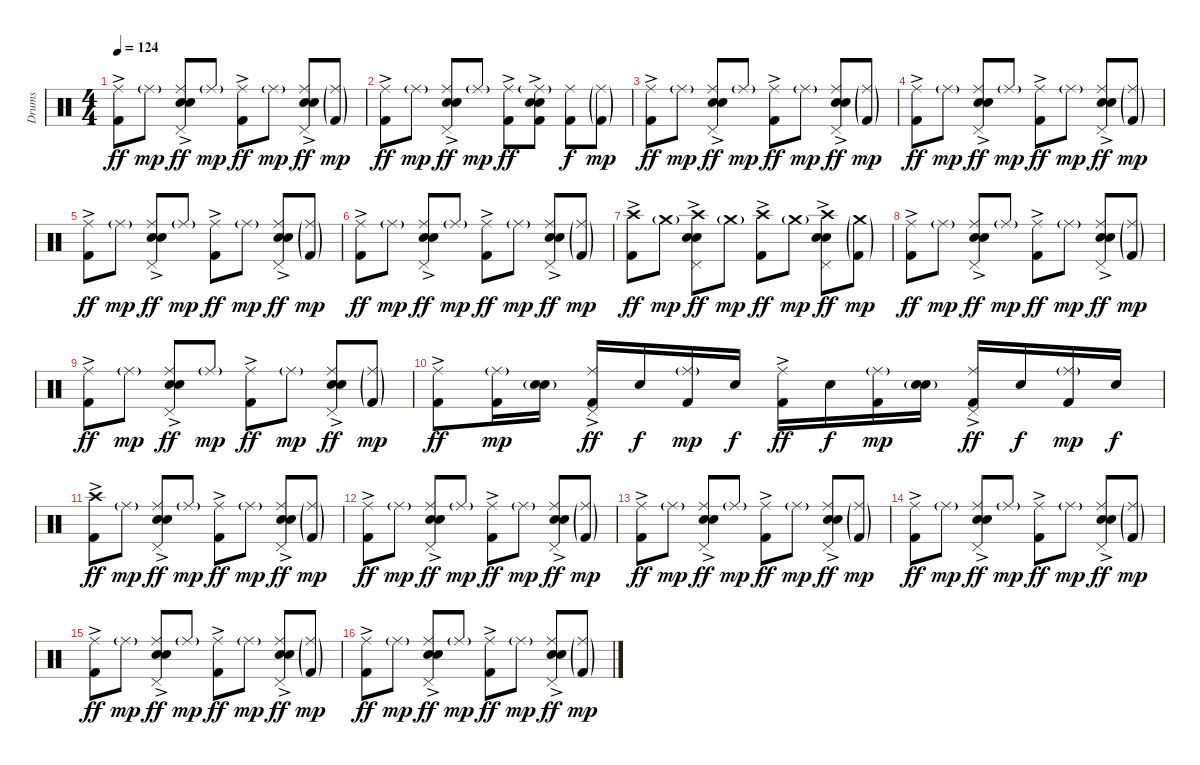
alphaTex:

\track ("Drums" "Drums") {instrument percussion}
\staff {score}
\articulation defaults
\ts (4 4)
\tempo 124
\clef neutral
\ks c
("Ride (middle)" "Kick (hit) 2"{ac}).8{dy ff} "Ride (middle)"{g}.8{dy mp} ("Ride (middle)" "Electric Snare (hit)"{ac} "Snare (hit) 2" "Pedal Hi-Hat (hit)").8{dy ff} "Ride (middle)"{g}.8{dy mp} ("Ride (middle)" "Kick (hit) 2"{ac}).8{dy ff} "Ride (middle)"{g}.8{dy mp} ("Ride (middle)" "Electric Snare (hit)"{ac} "Snare (hit) 2" "Pedal Hi-Hat (hit)").8{dy ff} ("Ride (middle)"{g} "Kick (hit) 2"{g}).8{dy mp} |
("Ride (middle)" "Kick (hit) 2"{ac}).8{dy ff} "Ride (middle)"{g}.8{dy mp} ("Ride (middle)" "Electric Snare (hit)"{ac} "Snare (hit) 2" "Pedal Hi-Hat (hit)").8{dy ff} "Ride (middle)"{g}.8{dy mp} ("Ride (middle)" "Kick (hit) 2"{ac}).8{dy ff} ("Ride (middle)"{g} "Electric Snare (hit)"{ac} "Snare (hit) 2" "Kick (hit) 2").8 ("Ride (middle)" "Kick (hit) 2").8{dy f} ("Ride (middle)"{g} "Kick (hit) 2"{g}).8{dy mp} |
("Ride (middle)" "Kick (hit) 2"{ac}).8{dy ff} "Ride (middle)"{g}.8{dy mp} ("Ride (middle)" "Electric Snare (hit)"{ac} "Snare (hit) 2" "Pedal Hi-Hat (hit)").8{dy ff} "Ride (middle)"{g}.8{dy mp} ("Ride (middle)" "Kick (hit) 2"{ac}).8{dy ff} "Ride (middle)"{g}.8{dy mp} ("Ride (middle)" "Electric Snare (hit)"{ac} "Snare (hit) 2" "Pedal Hi-Hat (hit)").8{dy ff} ("Ride (middle)"{g} "Kick (hit) 2"{g}).8{dy mp} |
("Ride (middle)" "Kick (hit) 2"{ac}).8{dy ff} "Ride (middle)"{g}.8{dy mp} ("Ride (middle)" "Electric Snare (hit)"{ac} "Snare (hit) 2" "Pedal Hi-Hat (hit)").8{dy ff} "Ride (middle)"{g}.8{dy mp} ("Ride (middle)" "Kick (hit) 2"{ac}).8{dy ff} "Ride (middle)"{g}.8{dy mp} ("Ride (middle)" "Electric Snare (hit)"{ac} "Snare (hit) 2" "Pedal Hi-Hat (hit)").8{dy ff} ("Ride (middle)"{g} "Kick (hit) 2"{g}).8{dy mp} |
("Ride (middle)" "Kick (hit) 2"{ac}).8{dy ff} "Ride (middle)"{g}.8{dy mp} ("Ride (middle)" "Electric Snare (hit)"{ac} "Snare (hit) 2" "Pedal Hi-Hat (hit)").8{dy ff} "Ride (middle)"{g}.8{dy mp} ("Ride (middle)" "Kick (hit) 2"{ac}).8{dy ff} "Ride (middle)"{g}.8{dy mp} ("Ride (middle)" "Electric Snare (hit)"{ac} "Snare (hit) 2" "Pedal Hi-Hat (hit)").8{dy ff} ("Ride (middle)"{g} "Kick (hit) 2"{g}).8{dy mp} |
("Ride (middle)" "Kick (hit) 2"{ac}).8{dy ff} "Ride (middle)"{g}.8{dy mp} ("Ride (middle)" "Electric Snare (hit)"{ac} "Snare (hit) 2" "Pedal Hi-Hat (hit)").8{dy ff} "Ride (middle)"{g}.8{dy mp} ("Ride (middle)" "Kick (hit) 2"{ac}).8{dy ff} "Ride (middle)"{g}.8{dy mp} ("Ride (middle)" "Electric Snare (hit)"{ac} "Snare (hit) 2" "Pedal Hi-Hat (hit)").8{dy ff} ("Ride (middle)"{g} "Kick (hit) 2"{g}).8{dy mp} |
("Crash high (hit)" "Kick (hit) 2"{ac}).8{dy ff} "Crash medium (hit)"{g}.8{dy mp} ("Crash high (hit)" "Electric Snare (hit)"{ac} "Snare (hit) 2" "Pedal Hi-Hat (hit)").8{dy ff} "Crash medium (hit)"{g}.8{dy mp} ("Crash high (hit)" "Kick (hit) 2"{ac}).8{dy ff} "Crash medium (hit)"{g}.8{dy mp} ("Crash high (hit)" "Electric Snare (hit)"{ac} "Snare (hit) 2" "Pedal Hi-Hat (hit)").8{dy ff} ("Crash medium (hit)"{g} "Kick (hit) 2"{g}).8{dy mp} |
("Ride (middle)" "Kick (hit) 2"{ac}).8{dy ff} "Ride (middle)"{g}.8{dy mp} ("Ride (middle)" "Electric Snare (hit)"{ac} "Snare (hit) 2" "Pedal Hi-Hat (hit)").8{dy ff} "Ride (middle)"{g}.8{dy mp} ("Ride (middle)" "Kick (hit) 2"{ac}).8{dy ff} "Ride (middle)"{g}.8{dy mp} ("Ride (middle)" "Electric Snare (hit)"{ac} "Snare (hit) 2" "Pedal Hi-Hat (hit)").8{dy ff} ("Ride (middle)"{g} "Kick (hit) 2"{g}).8{dy mp} |
("Ride (middle)" "Kick (hit) 2"{ac}).8{dy ff} "Ride (middle)"{g}.8{dy mp} ("Ride (middle)" "Electric Snare (hit)"{ac} "Snare (hit) 2" "Pedal Hi-Hat (hit)").8{dy ff} "Ride (middle)"{g}.8{dy mp} ("Ride (middle)" "Kick (hit) 2"{ac}).8{dy ff} "Ride (middle)"{g}.8{dy mp} ("Ride (middle)" "Electric Snare (hit)"{ac} "Snare (hit) 2" "Pedal Hi-Hat (hit)").8{dy ff} ("Ride (middle)"{g} "Kick (hit) 2"{g}).8{dy mp} |
("Ride (middle)" "Kick (hit) 2"{ac}).8{dy ff} ("Ride (middle)"{g} "Kick (hit) 2").16{dy mp} ("Electric Snare (hit)"{g} "Snare (hit) 2").16 ("Ride (middle)" "Pedal Hi-Hat (hit)" "Kick (hit) 2"{ac}).16{dy ff} "Snare (hit) 2".16{dy f} ("Ride (middle)"{g} "Kick (hit) 2").16{dy mp} "Snare (hit) 2".16{dy f} ("Ride (middle)" "Kick (hit) 2"{ac}).16{dy ff} "Snare (hit) 2".16{dy f} ("Ride (middle)"{g} "Kick (hit) 2").16{dy mp} ("Electric Snare (hit)"{g} "Snare (hit) 2").16 ("Ride (middle)" "Pedal Hi-Hat (hit)" "Kick (hit) 2"{ac}).16{dy ff} "Snare (hit) 2".16{dy f} ("Ride (middle)"{g} "Kick (hit) 2").16{dy mp} "Snare (hit) 2".16{dy f} |
("Crash high (hit)" "Kick (hit) 2"{ac}).8{dy ff} "Ride (middle)"{g}.8{dy mp} ("Ride (middle)" "Electric Snare (hit)"{ac} "Snare (hit) 2" "Pedal Hi-Hat (hit)").8{dy ff} "Ride (middle)"{g}.8{dy mp} ("Ride (middle)" "Kick (hit) 2"{ac}).8{dy ff} "Ride (middle)"{g}.8{dy mp} ("Ride (middle)" "Electric Snare (hit)"{ac} "Snare (hit) 2" "Pedal Hi-Hat (hit)").8{dy ff} ("Ride (middle)"{g} "Kick (hit) 2"{g}).8{dy mp} |
("Ride (middle)" "Kick (hit) 2"{ac}).8{dy ff} "Ride (middle)"{g}.8{dy mp} ("Ride (middle)" "Electric Snare (hit)"{ac} "Snare (hit) 2" "Pedal Hi-Hat (hit)").8{dy ff} "Ride (middle)"{g}.8{dy mp} ("Ride (middle)" "Kick (hit) 2"{ac}).8{dy ff} "Ride (middle)"{g}.8{dy mp} ("Ride (middle)" "Electric Snare (hit)"{ac} "Snare (hit) 2" "Pedal Hi-Hat (hit)").8{dy ff} ("Ride (middle)"{g} "Kick (hit) 2"{g}).8{dy mp} |
("Ride (middle)" "Kick (hit) 2"{ac}).8{dy ff} "Ride (middle)"{g}.8{dy mp} ("Ride (middle)" "Electric Snare (hit)"{ac} "Snare (hit) 2" "Pedal Hi-Hat (hit)").8{dy ff} "Ride (middle)"{g}.8{dy mp} ("Ride (middle)" "Kick (hit) 2"{ac}).8{dy ff} "Ride (middle)"{g}.8{dy mp} ("Ride (middle)" "Electric Snare (hit)"{ac} "Snare (hit) 2" "Pedal Hi-Hat (hit)").8{dy ff} ("Ride (middle)"{g} "Kick (hit) 2"{g}).8{dy mp} |
("Ride (middle)" "Kick (hit) 2"{ac}).8{dy ff} "Ride (middle)"{g}.8{dy mp} ("Ride (middle)" "Electric Snare (hit)"{ac} "Snare (hit) 2" "Pedal Hi-Hat (hit)").8{dy ff} "Ride (middle)"{g}.8{dy mp} ("Ride (middle)" "Kick (hit) 2"{ac}).8{dy ff} "Ride (middle)"{g}.8{dy mp} ("Ride (middle)" "Electric Snare (hit)"{ac} "Snare (hit) 2" "Pedal Hi-Hat (hit)").8{dy ff} ("Ride (middle)"{g} "Kick (hit) 2"{g}).8{dy mp} |
("Ride (middle)" "Kick (hit) 2"{ac}).8{dy ff} "Ride (middle)"{g}.8{dy mp} ("Ride (middle)" "Electric Snare (hit)"{ac} "Snare (hit) 2" "Pedal Hi-Hat (hit)").8{dy ff} "Ride (middle)"{g}.8{dy mp} ("Ride (middle)" "Kick (hit) 2"{ac}).8{dy ff} "Ride (middle)"{g}.8{dy mp} ("Ride (middle)" "Electric Snare (hit)"{ac} "Snare (hit) 2" "Pedal Hi-Hat (hit)").8{dy ff} ("Ride (middle)"{g} "Kick (hit) 2"{g}).8{dy mp} |
("Ride (middle)" "Kick (hit) 2"{ac}).8{dy ff} "Ride (middle)"{g}.8{dy mp} ("Ride (middle)" "Electric Snare (hit)"{ac} "Snare (hit) 2" "Pedal Hi-Hat (hit)").8{dy ff} "Ride (middle)"{g}.8{dy mp} ("Ride (middle)" "Kick (hit) 2"{ac}).8{dy ff} "Ride (middle)"{g}.8{dy mp} ("Ride (middle)" "Electric Snare (hit)"{ac} "Snare (hit) 2" "Pedal Hi-Hat (hit)").8{dy ff} ("Ride (middle)"{g} "Kick (hit) 2"{g}).8{dy mp}
